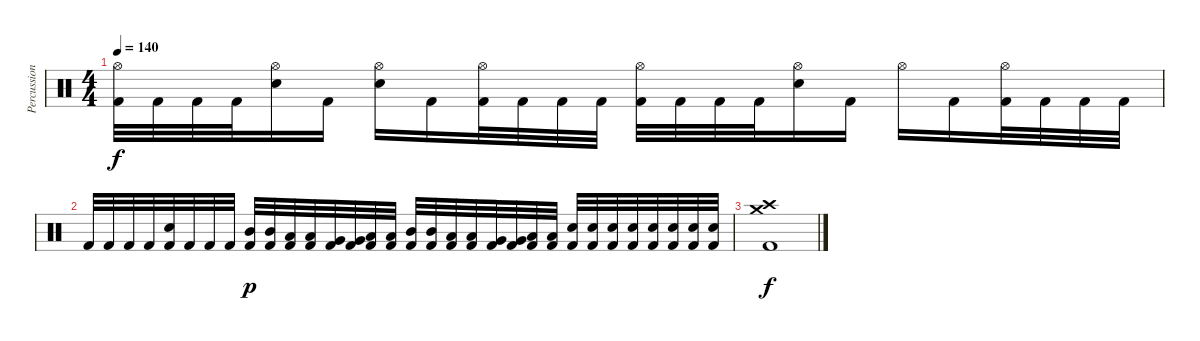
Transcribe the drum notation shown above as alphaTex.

\track ("Percussion" "Percussion") {instrument percussion}
\staff {score}
\articulation defaults
\ts (4 4)
\tempo 140
\clef neutral
\ks c
("Hi-Hat (open)" "Kick (hit) 2").32{dy f} "Kick (hit) 2".32 "Kick (hit) 2".32 "Kick (hit) 2".32 ("Hi-Hat (open)" "Electric Snare (hit)").16 "Kick (hit) 2".16 ("Hi-Hat (open)" "Electric Snare (hit)").16 "Kick (hit) 2".16 ("Hi-Hat (open)" "Kick (hit) 2").32 "Kick (hit) 2".32 "Kick (hit) 2".32 "Kick (hit) 2".32 ("Hi-Hat (open)" "Kick (hit) 2").32 "Kick (hit) 2".32 "Kick (hit) 2".32 "Kick (hit) 2".32 ("Hi-Hat (open)" "Electric Snare (hit)").16 "Kick (hit) 2".16 "Hi-Hat (open)".16 "Kick (hit) 2".16 ("Hi-Hat (open)" "Kick (hit) 2").32 "Kick (hit) 2".32 "Kick (hit) 2".32 "Kick (hit) 2".32 |
"Kick (hit) 2".32 "Kick (hit) 2".32 "Kick (hit) 2".32 "Kick (hit) 2".32 ("Electric Snare (hit)" "Kick (hit) 2").32 "Kick (hit) 2".32 "Kick (hit) 2".32 "Kick (hit) 2".32 ("Mid Tom (hit)" "Kick (hit) 2").32{dy p} ("Mid Tom (hit)" "Kick (hit) 2").32 ("Low Tom (hit)" "Kick (hit) 2").32 ("Low Tom (hit)" "Kick (hit) 2").32 ("Very Low Tom (hit)" "Kick (hit) 2").32 ("Very Low Tom (hit)" "Kick (hit) 2").32 ("Low Floor Tom (hit)" "Kick (hit) 2").32 ("Low Floor Tom (hit)" "Kick (hit) 2").32 ("Mid Tom (hit)" "Kick (hit) 2").32 ("Mid Tom (hit)" "Kick (hit) 2").32 ("Low Tom (hit)" "Kick (hit) 2").32 ("Low Tom (hit)" "Kick (hit) 2").32 ("Very Low Tom (hit)" "Kick (hit) 2").32 ("Very Low Tom (hit)" "Kick (hit) 2").32 ("Low Floor Tom (hit)" "Kick (hit) 2").32 ("Low Floor Tom (hit)" "Kick (hit) 2").32 ("Electric Snare (hit)" "Kick (hit) 2").32 ("Electric Snare (hit)" "Kick (hit) 2").32 ("Electric Snare (hit)" "Kick (hit) 2").32 ("Electric Snare (hit)" "Kick (hit) 2").32 ("Electric Snare (hit)" "Kick (hit) 2").32 ("Electric Snare (hit)" "Kick (hit) 2").32 ("Electric Snare (hit)" "Kick (hit) 2").32 ("Electric Snare (hit)" "Kick (hit) 2").32 |
("Crash medium (hit)" "Crash high (hit)" "Kick (hit) 2").1{dy f}
